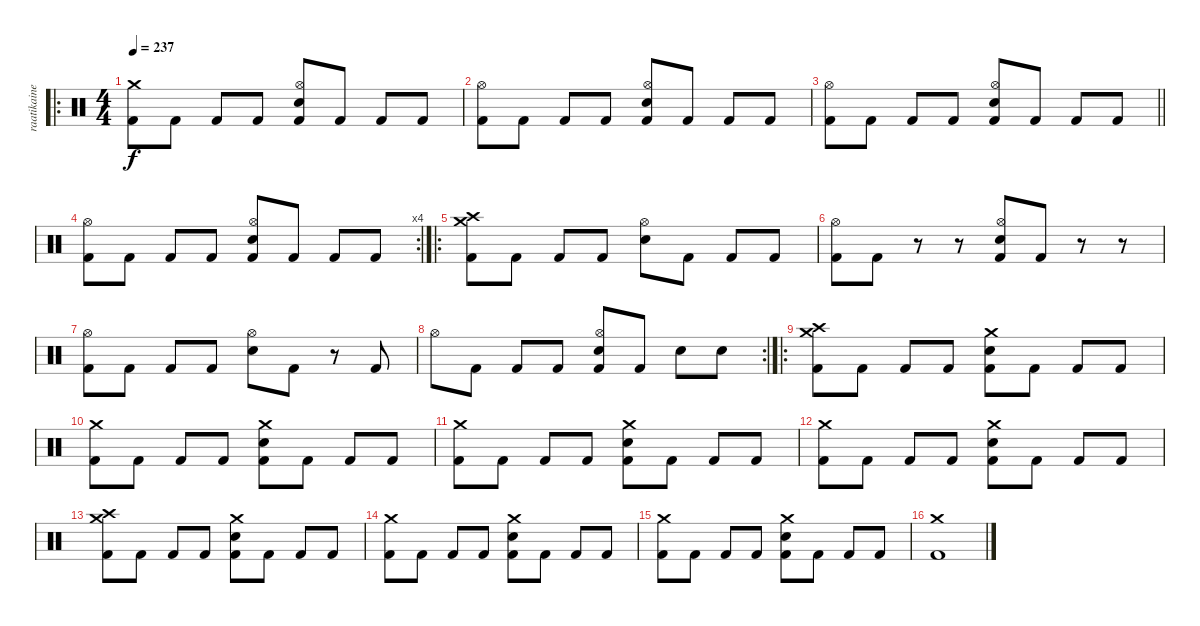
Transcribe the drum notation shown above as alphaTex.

\track ("raatikainen" "raatikaine") {instrument percussion}
\staff {score}
\articulation defaults
\ro
\ts (4 4)
\tempo 237
\clef neutral
\ks c
("Crash medium (hit)" "Kick (hit) 2").8{dy f} "Kick (hit) 2".8 "Kick (hit) 2".8 "Kick (hit) 2".8 ("Hi-Hat (open)" "Snare (hit) 2" "Kick (hit) 2").8 "Kick (hit) 2".8 "Kick (hit) 2".8 "Kick (hit) 2".8 |
("Hi-Hat (open)" "Kick (hit) 2").8 "Kick (hit) 2".8 "Kick (hit) 2".8 "Kick (hit) 2".8 ("Hi-Hat (open)" "Snare (hit) 2" "Kick (hit) 2").8 "Kick (hit) 2".8 "Kick (hit) 2".8 "Kick (hit) 2".8 |
\barLineRight lightlight
("Hi-Hat (open)" "Kick (hit) 2").8 "Kick (hit) 2".8 "Kick (hit) 2".8 "Kick (hit) 2".8 ("Hi-Hat (open)" "Snare (hit) 2" "Kick (hit) 2").8 "Kick (hit) 2".8 "Kick (hit) 2".8 "Kick (hit) 2".8 |
\rc 4
\section ("" "")
("Hi-Hat (open)" "Kick (hit) 2").8 "Kick (hit) 2".8 "Kick (hit) 2".8 "Kick (hit) 2".8 ("Hi-Hat (open)" "Snare (hit) 2" "Kick (hit) 2").8 "Kick (hit) 2".8 "Kick (hit) 2".8 "Kick (hit) 2".8 |
\ro
("Crash medium (hit)" "Crash high (hit)" "Kick (hit) 2").8 "Kick (hit) 2".8 "Kick (hit) 2".8 "Kick (hit) 2".8 ("Hi-Hat (open)" "Snare (hit) 2").8 "Kick (hit) 2".8 "Kick (hit) 2".8 "Kick (hit) 2".8 |
("Hi-Hat (open)" "Kick (hit) 2").8 "Kick (hit) 2".8 r.8 r.8 ("Hi-Hat (open)" "Snare (hit) 2" "Kick (hit) 2").8 "Kick (hit) 2".8 r.8 r.8 |
("Hi-Hat (open)" "Kick (hit) 2").8 "Kick (hit) 2".8 "Kick (hit) 2".8 "Kick (hit) 2".8 ("Hi-Hat (open)" "Snare (hit) 2").8 "Kick (hit) 2".8 r.8 "Kick (hit) 2".8 |
\rc 2 "Hi-Hat (open)".8 "Kick (hit) 2".8 "Kick (hit) 2".8 "Kick (hit) 2".8
("Hi-Hat (open)" "Snare (hit) 2" "Kick (hit) 2").8 "Kick (hit) 2".8 "Snare (hit) 2".8 "Snare (hit) 2".8 |
\ro
("Crash high (hit)" "Crash medium (hit)" "Kick (hit) 2").8 "Kick (hit) 2".8 "Kick (hit) 2".8 "Kick (hit) 2".8 ("Crash medium (hit)" "Snare (hit) 2" "Kick (hit) 2").8 "Kick (hit) 2".8 "Kick (hit) 2".8 "Kick (hit) 2".8 |
("Crash medium (hit)" "Kick (hit) 2").8 "Kick (hit) 2".8 "Kick (hit) 2".8 "Kick (hit) 2".8 ("Crash medium (hit)" "Snare (hit) 2" "Kick (hit) 2").8 "Kick (hit) 2".8 "Kick (hit) 2".8 "Kick (hit) 2".8 |
("Crash medium (hit)" "Kick (hit) 2").8 "Kick (hit) 2".8 "Kick (hit) 2".8 "Kick (hit) 2".8 ("Crash medium (hit)" "Snare (hit) 2" "Kick (hit) 2").8 "Kick (hit) 2".8 "Kick (hit) 2".8 "Kick (hit) 2".8 |
("Crash medium (hit)" "Kick (hit) 2").8 "Kick (hit) 2".8 "Kick (hit) 2".8 "Kick (hit) 2".8 ("Crash medium (hit)" "Snare (hit) 2" "Kick (hit) 2").8 "Kick (hit) 2".8 "Kick (hit) 2".8 "Kick (hit) 2".8 |
("Crash high (hit)" "Crash medium (hit)" "Kick (hit) 2").8 "Kick (hit) 2".8 "Kick (hit) 2".8 "Kick (hit) 2".8 ("Crash medium (hit)" "Snare (hit) 2" "Kick (hit) 2").8 "Kick (hit) 2".8 "Kick (hit) 2".8 "Kick (hit) 2".8 |
("Crash medium (hit)" "Kick (hit) 2").8 "Kick (hit) 2".8 "Kick (hit) 2".8 "Kick (hit) 2".8 ("Crash medium (hit)" "Snare (hit) 2" "Kick (hit) 2").8 "Kick (hit) 2".8 "Kick (hit) 2".8 "Kick (hit) 2".8 |
("Crash medium (hit)" "Kick (hit) 2").8 "Kick (hit) 2".8 "Kick (hit) 2".8 "Kick (hit) 2".8 ("Crash medium (hit)" "Snare (hit) 2" "Kick (hit) 2").8 "Kick (hit) 2".8 "Kick (hit) 2".8 "Kick (hit) 2".8 |
("Crash medium (hit)" "Kick (hit) 2").1
